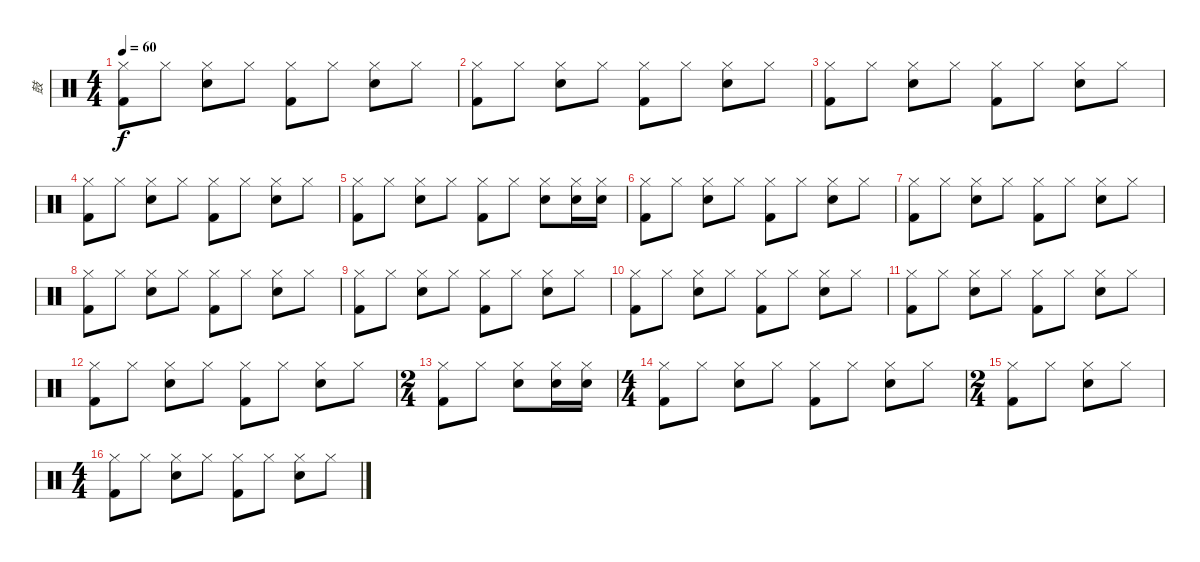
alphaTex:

\track ("鼓" "鼓") {instrument percussion}
\staff {score}
\articulation defaults
\ts (4 4)
\tempo 60
\clef neutral
\ks c
("Hi-Hat (closed)" "Kick (hit) 2").8{dy f} "Hi-Hat (closed)".8 ("Hi-Hat (closed)" "Snare (hit) 2").8 "Hi-Hat (closed)".8 ("Hi-Hat (closed)" "Kick (hit) 2").8 "Hi-Hat (closed)".8 ("Hi-Hat (closed)" "Snare (hit) 2").8 "Hi-Hat (closed)".8 |
("Hi-Hat (closed)" "Kick (hit) 2").8 "Hi-Hat (closed)".8 ("Hi-Hat (closed)" "Snare (hit) 2").8 "Hi-Hat (closed)".8 ("Hi-Hat (closed)" "Kick (hit) 2").8 "Hi-Hat (closed)".8 ("Hi-Hat (closed)" "Snare (hit) 2").8 "Hi-Hat (closed)".8 |
("Hi-Hat (closed)" "Kick (hit) 2").8 "Hi-Hat (closed)".8 ("Hi-Hat (closed)" "Snare (hit) 2").8 "Hi-Hat (closed)".8 ("Hi-Hat (closed)" "Kick (hit) 2").8 "Hi-Hat (closed)".8 ("Hi-Hat (closed)" "Snare (hit) 2").8 "Hi-Hat (closed)".8 |
("Hi-Hat (closed)" "Kick (hit) 2").8 "Hi-Hat (closed)".8 ("Hi-Hat (closed)" "Snare (hit) 2").8 "Hi-Hat (closed)".8 ("Hi-Hat (closed)" "Kick (hit) 2").8 "Hi-Hat (closed)".8 ("Hi-Hat (closed)" "Snare (hit) 2").8 "Hi-Hat (closed)".8 |
("Hi-Hat (closed)" "Kick (hit) 2").8 "Hi-Hat (closed)".8 ("Hi-Hat (closed)" "Snare (hit) 2").8 "Hi-Hat (closed)".8 ("Hi-Hat (closed)" "Kick (hit) 2").8 "Hi-Hat (closed)".8 ("Hi-Hat (closed)" "Snare (hit) 2").8 ("Hi-Hat (closed)" "Snare (hit) 2").16 ("Hi-Hat (closed)" "Snare (hit) 2").16 |
("Hi-Hat (closed)" "Kick (hit) 2").8 "Hi-Hat (closed)".8 ("Hi-Hat (closed)" "Snare (hit) 2").8 "Hi-Hat (closed)".8 ("Hi-Hat (closed)" "Kick (hit) 2").8 "Hi-Hat (closed)".8 ("Hi-Hat (closed)" "Snare (hit) 2").8 "Hi-Hat (closed)".8 |
("Hi-Hat (closed)" "Kick (hit) 2").8 "Hi-Hat (closed)".8 ("Hi-Hat (closed)" "Snare (hit) 2").8 "Hi-Hat (closed)".8 ("Hi-Hat (closed)" "Kick (hit) 2").8 "Hi-Hat (closed)".8 ("Hi-Hat (closed)" "Snare (hit) 2").8 "Hi-Hat (closed)".8 |
("Hi-Hat (closed)" "Kick (hit) 2").8 "Hi-Hat (closed)".8 ("Hi-Hat (closed)" "Snare (hit) 2").8 "Hi-Hat (closed)".8 ("Hi-Hat (closed)" "Kick (hit) 2").8 "Hi-Hat (closed)".8 ("Hi-Hat (closed)" "Snare (hit) 2").8 "Hi-Hat (closed)".8 |
("Hi-Hat (closed)" "Kick (hit) 2").8 "Hi-Hat (closed)".8 ("Hi-Hat (closed)" "Snare (hit) 2").8 "Hi-Hat (closed)".8 ("Hi-Hat (closed)" "Kick (hit) 2").8 "Hi-Hat (closed)".8 ("Hi-Hat (closed)" "Snare (hit) 2").8 "Hi-Hat (closed)".8 |
("Hi-Hat (closed)" "Kick (hit) 2").8 "Hi-Hat (closed)".8 ("Hi-Hat (closed)" "Snare (hit) 2").8 "Hi-Hat (closed)".8 ("Hi-Hat (closed)" "Kick (hit) 2").8 "Hi-Hat (closed)".8 ("Hi-Hat (closed)" "Snare (hit) 2").8 "Hi-Hat (closed)".8 |
("Hi-Hat (closed)" "Kick (hit) 2").8 "Hi-Hat (closed)".8 ("Hi-Hat (closed)" "Snare (hit) 2").8 "Hi-Hat (closed)".8 ("Hi-Hat (closed)" "Kick (hit) 2").8 "Hi-Hat (closed)".8 ("Hi-Hat (closed)" "Snare (hit) 2").8 "Hi-Hat (closed)".8 |
("Hi-Hat (closed)" "Kick (hit) 2").8 "Hi-Hat (closed)".8 ("Hi-Hat (closed)" "Snare (hit) 2").8 "Hi-Hat (closed)".8 ("Hi-Hat (closed)" "Kick (hit) 2").8 "Hi-Hat (closed)".8 ("Hi-Hat (closed)" "Snare (hit) 2").8 "Hi-Hat (closed)".8 |
\ts (2 4)
("Hi-Hat (closed)" "Kick (hit) 2").8 "Hi-Hat (closed)".8 ("Hi-Hat (closed)" "Snare (hit) 2").8 ("Hi-Hat (closed)" "Snare (hit) 2").16 ("Hi-Hat (closed)" "Snare (hit) 2").16 |
\ts (4 4)
("Hi-Hat (closed)" "Kick (hit) 2").8 "Hi-Hat (closed)".8 ("Hi-Hat (closed)" "Snare (hit) 2").8 "Hi-Hat (closed)".8 ("Hi-Hat (closed)" "Kick (hit) 2").8 "Hi-Hat (closed)".8 ("Hi-Hat (closed)" "Snare (hit) 2").8 "Hi-Hat (closed)".8 |
\ts (2 4)
("Hi-Hat (closed)" "Kick (hit) 2").8 "Hi-Hat (closed)".8 ("Hi-Hat (closed)" "Snare (hit) 2").8 "Hi-Hat (closed)".8 |
\ts (4 4)
("Hi-Hat (closed)" "Kick (hit) 2").8 "Hi-Hat (closed)".8 ("Hi-Hat (closed)" "Snare (hit) 2").8 "Hi-Hat (closed)".8 ("Hi-Hat (closed)" "Kick (hit) 2").8 "Hi-Hat (closed)".8 ("Hi-Hat (closed)" "Snare (hit) 2").8 "Hi-Hat (closed)".8
